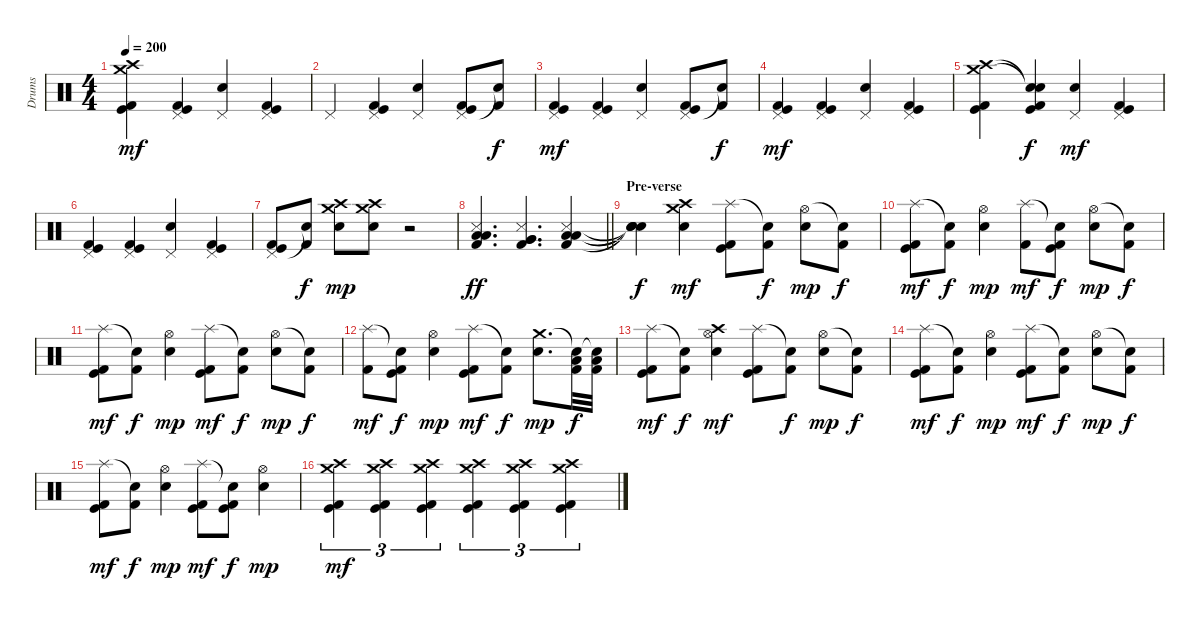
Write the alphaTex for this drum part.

\track ("Drums" "Drums") {instrument percussion}
\staff {score}
\articulation defaults
\ts (4 4)
\tempo 200
\clef neutral
\ks c
("Crash high (hit)" "Crash medium (hit)" "Kick (hit)" "Kick (hit) 2").4{dy mf} ("Pedal Hi-Hat (hit)" "Kick (hit)" "Kick (hit) 2").4 ("Pedal Hi-Hat (hit)" "Snare (hit) 2").4 ("Pedal Hi-Hat (hit)" "Kick (hit)" "Kick (hit) 2").4 |
"Pedal Hi-Hat (hit)".4 ("Pedal Hi-Hat (hit)" "Kick (hit)" "Kick (hit) 2").4 ("Pedal Hi-Hat (hit)" "Snare (hit) 2").4 ("Pedal Hi-Hat (hit)" "Kick (hit)" "Kick (hit) 2").8 ("Snare (hit)"{t} "Kick (hit) 2").8{dy f} |
("Pedal Hi-Hat (hit)" "Kick (hit)" "Kick (hit) 2").4{dy mf} ("Pedal Hi-Hat (hit)" "Kick (hit)" "Kick (hit) 2").4 ("Pedal Hi-Hat (hit)" "Snare (hit) 2").4 ("Pedal Hi-Hat (hit)" "Kick (hit)" "Kick (hit) 2").8 ("Snare (hit)"{t} "Kick (hit) 2").8{dy f} |
("Pedal Hi-Hat (hit)" "Kick (hit)" "Kick (hit) 2").4{dy mf} ("Pedal Hi-Hat (hit)" "Kick (hit)" "Kick (hit) 2").4 ("Pedal Hi-Hat (hit)" "Snare (hit) 2").4 ("Pedal Hi-Hat (hit)" "Kick (hit)" "Kick (hit) 2").4 |
("Crash high (hit)" "Crash medium (hit)" "Kick (hit)" "Kick (hit) 2").4 ("Snare (hit)"{t} "Snare (hit)"{t} "Kick (hit)" "Kick (hit) 2").4{dy f} ("Pedal Hi-Hat (hit)" "Snare (hit) 2").4{dy mf} ("Pedal Hi-Hat (hit)" "Kick (hit)" "Kick (hit) 2").4 |
("Pedal Hi-Hat (hit)" "Kick (hit)" "Kick (hit) 2").4 ("Pedal Hi-Hat (hit)" "Kick (hit)" "Kick (hit) 2").4 ("Pedal Hi-Hat (hit)" "Snare (hit) 2").4 ("Pedal Hi-Hat (hit)" "Kick (hit)" "Kick (hit) 2").4 |
("Pedal Hi-Hat (hit)" "Kick (hit)" "Kick (hit) 2").8 ("Snare (hit)"{t} "Kick (hit) 2").8{dy f} ("Crash high (hit)" "Crash medium (hit)" "Snare (hit) 2").8{dy mp} ("Crash high (hit)" "Crash medium (hit)" "Snare (hit) 2").8 r.2 |
\barLineRight lightlight
("Snare (side stick) 3" "Kick (hit) 2" "Low Tom (hit)" "Low Tom (hit)").4{d dy ff} ("Snare (side stick) 3" "Kick (hit) 2" "Very Low Tom (hit)" "Very Low Tom (hit)").4{d} ("Snare (side stick) 3" "Kick (hit) 2" "Low Floor Tom (hit)" "Low Floor Tom (hit)").4 |
\section ("" "Pre-verse")
("Snare (hit)"{t} "Snare (hit)"{t} "Snare (hit)"{t} "Snare (hit)"{t}).4{dy f} ("Crash high (hit)" "Crash medium (hit)" "Snare (hit) 2").4{dy mf} ("Splash (hit)" "Kick (hit)" "Kick (hit) 2").8 ("Snare (hit)"{t} "Kick (hit) 2").8{dy f} ("Hi-Hat (open)" "Snare (hit) 2").8{dy mp} ("Snare (hit)"{t} "Kick (hit) 2").8{dy f} |
("Splash (hit)" "Kick (hit)" "Kick (hit) 2").8{dy mf} ("Snare (hit)"{t} "Kick (hit) 2").8{dy f} ("Hi-Hat (open)" "Snare (hit) 2").4{dy mp} ("Splash (hit)" "Kick (hit) 2").8{dy mf} ("Snare (hit)"{t} "Kick (hit)" "Kick (hit) 2").8{dy f} ("Hi-Hat (open)" "Snare (hit) 2").8{dy mp} ("Snare (hit)"{t} "Kick (hit) 2").8{dy f} |
("Splash (hit)" "Kick (hit)" "Kick (hit) 2").8{dy mf} ("Snare (hit)"{t} "Kick (hit) 2").8{dy f} ("Hi-Hat (open)" "Snare (hit) 2").4{dy mp} ("Splash (hit)" "Kick (hit)" "Kick (hit) 2").8{dy mf} ("Snare (hit)"{t} "Kick (hit) 2").8{dy f} ("Hi-Hat (open)" "Snare (hit) 2").8{dy mp} ("Snare (hit)"{t} "Kick (hit) 2").8{dy f} |
("Splash (hit)" "Kick (hit) 2").8{dy mf} ("Snare (hit)"{t} "Kick (hit)" "Kick (hit) 2").8{dy f} ("Hi-Hat (open)" "Snare (hit) 2").4{dy mp} ("Splash (hit)" "Kick (hit)" "Kick (hit) 2").8{dy mf} ("Snare (hit)"{t} "Kick (hit) 2").8{dy f} ("Crash medium (hit)" "Snare (hit) 2").8{d dy mp} ("Snare (hit)"{t} "Low Floor Tom (hit)" "Kick (hit) 2").32{dy f} ("Snare (hit)"{t} "Low Floor Tom (hit)" "Kick (hit) 2").32 |
("Splash (hit)" "Kick (hit)" "Kick (hit) 2").8{dy mf} ("Snare (hit)"{t} "Kick (hit) 2").8{dy f} ("Crash high (hit)" "Hi-Hat (open)" "Snare (hit) 2").4{dy mf} ("Splash (hit)" "Kick (hit)" "Kick (hit) 2").8 ("Snare (hit)"{t} "Kick (hit) 2").8{dy f} ("Hi-Hat (open)" "Snare (hit) 2").8{dy mp} ("Snare (hit)"{t} "Kick (hit) 2").8{dy f} |
("Splash (hit)" "Kick (hit)" "Kick (hit) 2").8{dy mf} ("Snare (hit)"{t} "Kick (hit) 2").8{dy f} ("Hi-Hat (open)" "Snare (hit) 2").4{dy mp} ("Splash (hit)" "Kick (hit)" "Kick (hit) 2").8{dy mf} ("Snare (hit)"{t} "Kick (hit) 2").8{dy f} ("Hi-Hat (open)" "Snare (hit) 2").8{dy mp} ("Snare (hit)"{t} "Kick (hit) 2").8{dy f} |
("Splash (hit)" "Kick (hit)" "Kick (hit) 2").8{dy mf} ("Snare (hit)"{t} "Kick (hit) 2").8{dy f} ("Hi-Hat (open)" "Snare (hit) 2").4{dy mp} ("Splash (hit)" "Kick (hit)" "Kick (hit) 2").8{dy mf} ("Snare (hit)"{t} "Kick (hit)" "Kick (hit) 2").8{dy f} ("Hi-Hat (open)" "Snare (hit) 2").4{dy mp} |
("Crash high (hit)" "Crash medium (hit)" "Kick (hit)" "Kick (hit) 2").4{tu (3 2) dy mf} ("Crash high (hit)" "Crash medium (hit)" "Kick (hit)" "Kick (hit) 2").4{tu (3 2)} ("Crash high (hit)" "Crash medium (hit)" "Kick (hit)" "Kick (hit) 2").4{tu (3 2)} ("Crash high (hit)" "Crash medium (hit)" "Kick (hit)" "Kick (hit) 2").4{tu (3 2)} ("Crash high (hit)" "Crash medium (hit)" "Kick (hit)" "Kick (hit) 2").4{tu (3 2)} ("Crash high (hit)" "Crash medium (hit)" "Kick (hit)" "Kick (hit) 2").4{tu (3 2)}
